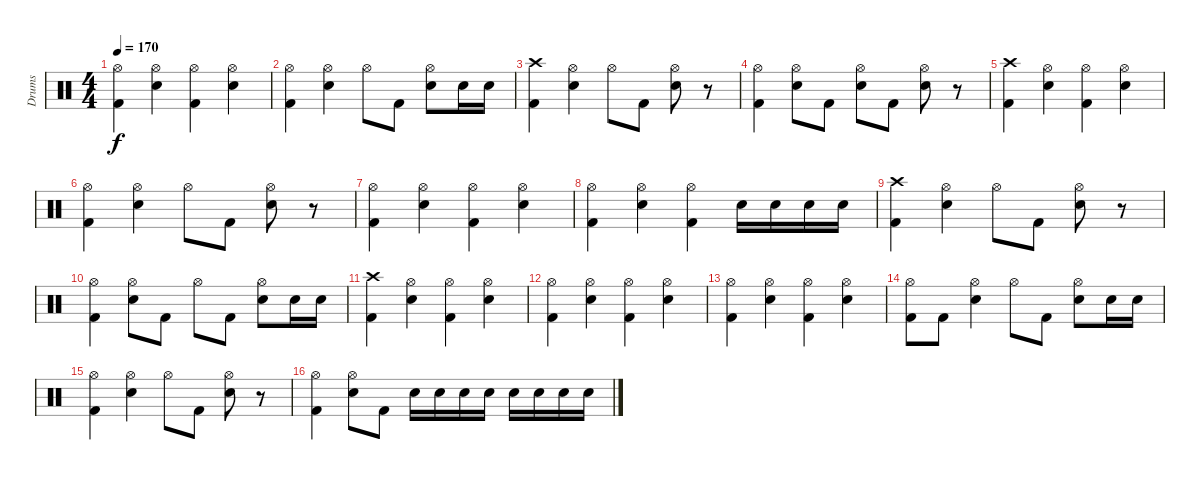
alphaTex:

\track ("Drums" "Drums") {instrument percussion}
\staff {score}
\articulation defaults
\ts (4 4)
\tempo 170
\clef neutral
\ks c
("Hi-Hat (open)" "Kick (hit) 2").4{dy f} ("Hi-Hat (open)" "Snare (hit) 2").4 ("Hi-Hat (open)" "Kick (hit) 2").4 ("Hi-Hat (open)" "Snare (hit) 2").4 |
("Hi-Hat (open)" "Kick (hit) 2").4 ("Hi-Hat (open)" "Snare (hit) 2").4 "Hi-Hat (open)".8 "Kick (hit) 2".8 ("Hi-Hat (open)" "Snare (hit) 2").8 "Snare (hit) 2".16 "Snare (hit) 2".16 |
("Crash high (hit)" "Kick (hit) 2").4 ("Hi-Hat (open)" "Snare (hit) 2").4 "Hi-Hat (open)".8 "Kick (hit) 2".8 ("Hi-Hat (open)" "Snare (hit) 2").8 r.8 |
("Hi-Hat (open)" "Kick (hit) 2").4 ("Hi-Hat (open)" "Snare (hit) 2").8 "Kick (hit) 2".8 ("Hi-Hat (open)" "Snare (hit) 2").8 "Kick (hit) 2".8 ("Hi-Hat (open)" "Snare (hit) 2").8 r.8 |
("Crash high (hit)" "Kick (hit) 2").4 ("Hi-Hat (open)" "Snare (hit) 2").4 ("Hi-Hat (open)" "Kick (hit) 2").4 ("Hi-Hat (open)" "Snare (hit) 2").4 |
("Hi-Hat (open)" "Kick (hit) 2").4 ("Hi-Hat (open)" "Snare (hit) 2").4 "Hi-Hat (open)".8 "Kick (hit) 2".8 ("Hi-Hat (open)" "Snare (hit) 2").8 r.8 |
("Hi-Hat (open)" "Kick (hit) 2").4 ("Hi-Hat (open)" "Snare (hit) 2").4 ("Hi-Hat (open)" "Kick (hit) 2").4 ("Hi-Hat (open)" "Snare (hit) 2").4 |
("Hi-Hat (open)" "Kick (hit) 2").4 ("Hi-Hat (open)" "Snare (hit) 2").4 ("Hi-Hat (open)" "Kick (hit) 2").4 "Snare (hit) 2".16 "Snare (hit) 2".16 "Snare (hit) 2".16 "Snare (hit) 2".16 |
("Crash high (hit)" "Kick (hit) 2").4 ("Hi-Hat (open)" "Snare (hit) 2").4 "Hi-Hat (open)".8 "Kick (hit) 2".8 ("Hi-Hat (open)" "Snare (hit) 2").8 r.8 |
("Hi-Hat (open)" "Kick (hit) 2").4 ("Hi-Hat (open)" "Snare (hit) 2").8 "Kick (hit) 2".8 "Hi-Hat (open)".8 "Kick (hit) 2".8 ("Hi-Hat (open)" "Snare (hit) 2").8 "Snare (hit) 2".16 "Snare (hit) 2".16 |
("Crash high (hit)" "Kick (hit) 2").4 ("Hi-Hat (open)" "Snare (hit) 2").4 ("Hi-Hat (open)" "Kick (hit) 2").4 ("Hi-Hat (open)" "Snare (hit) 2").4 |
("Hi-Hat (open)" "Kick (hit) 2").4 ("Hi-Hat (open)" "Snare (hit) 2").4 ("Hi-Hat (open)" "Kick (hit) 2").4 ("Hi-Hat (open)" "Snare (hit) 2").4 |
("Hi-Hat (open)" "Kick (hit) 2").4 ("Hi-Hat (open)" "Snare (hit) 2").4 ("Hi-Hat (open)" "Kick (hit) 2").4 ("Hi-Hat (open)" "Snare (hit) 2").4 |
("Hi-Hat (open)" "Kick (hit) 2").8 "Kick (hit) 2".8 ("Hi-Hat (open)" "Snare (hit) 2").4 "Hi-Hat (open)".8 "Kick (hit) 2".8 ("Hi-Hat (open)" "Snare (hit) 2").8 "Snare (hit) 2".16 "Snare (hit) 2".16 |
("Hi-Hat (open)" "Kick (hit) 2").4 ("Hi-Hat (open)" "Snare (hit) 2").4 "Hi-Hat (open)".8 "Kick (hit) 2".8 ("Hi-Hat (open)" "Snare (hit) 2").8 r.8 |
("Hi-Hat (open)" "Kick (hit) 2").4 ("Hi-Hat (open)" "Snare (hit) 2").8 "Kick (hit) 2".8 "Snare (hit) 2".16 "Snare (hit) 2".16 "Snare (hit) 2".16 "Snare (hit) 2".16 "Snare (hit) 2".16 "Snare (hit) 2".16 "Snare (hit) 2".16 "Snare (hit) 2".16
